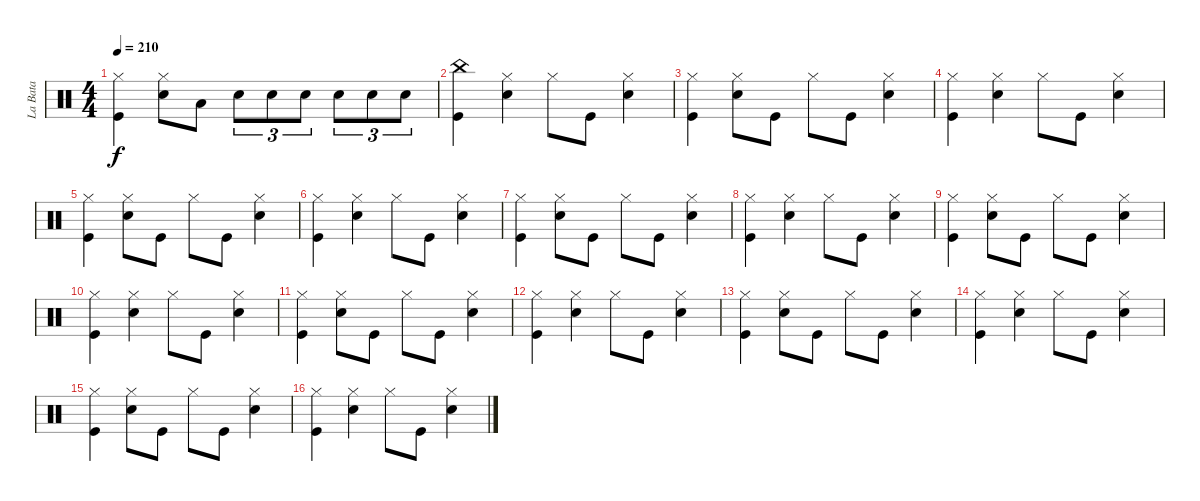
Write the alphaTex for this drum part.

\track ("La Bata" "La Bata") {instrument percussion}
\staff {score}
\articulation defaults
\ts (4 4)
\tempo 210
\clef neutral
\ks c
("Hi-Hat (closed)" "Kick (hit)").4{dy f} ("Snare (hit) 2" "Hi-Hat (closed)").8 "Low Tom (hit)".8 "Snare (hit) 2".8{tu (3 2)} "Snare (hit) 2".8{tu (3 2)} "Snare (hit) 2".8{tu (3 2)} "Snare (hit) 2".8{tu (3 2)} "Snare (hit) 2".8{tu (3 2)} "Snare (hit) 2".8{tu (3 2)} |
("Kick (hit)" "China (hit)").4 ("Snare (hit) 2" "Hi-Hat (closed)").4 "Hi-Hat (closed)".8 "Kick (hit)".8 ("Snare (hit) 2" "Hi-Hat (closed)").4 |
("Hi-Hat (closed)" "Kick (hit)").4 ("Snare (hit) 2" "Hi-Hat (closed)").8 "Kick (hit)".8 "Hi-Hat (closed)".8 "Kick (hit)".8 ("Hi-Hat (closed)" "Snare (hit) 2").4 |
("Kick (hit)" "Hi-Hat (closed)").4 ("Snare (hit) 2" "Hi-Hat (closed)").4 "Hi-Hat (closed)".8 "Kick (hit)".8 ("Snare (hit) 2" "Hi-Hat (closed)").4 |
("Hi-Hat (closed)" "Kick (hit)").4 ("Snare (hit) 2" "Hi-Hat (closed)").8 "Kick (hit)".8 "Hi-Hat (closed)".8 "Kick (hit)".8 ("Hi-Hat (closed)" "Snare (hit) 2").4 |
("Kick (hit)" "Hi-Hat (closed)").4 ("Snare (hit) 2" "Hi-Hat (closed)").4 "Hi-Hat (closed)".8 "Kick (hit)".8 ("Snare (hit) 2" "Hi-Hat (closed)").4 |
("Hi-Hat (closed)" "Kick (hit)").4 ("Snare (hit) 2" "Hi-Hat (closed)").8 "Kick (hit)".8 "Hi-Hat (closed)".8 "Kick (hit)".8 ("Hi-Hat (closed)" "Snare (hit) 2").4 |
("Kick (hit)" "Hi-Hat (closed)").4 ("Snare (hit) 2" "Hi-Hat (closed)").4 "Hi-Hat (closed)".8 "Kick (hit)".8 ("Snare (hit) 2" "Hi-Hat (closed)").4 |
("Hi-Hat (closed)" "Kick (hit)").4 ("Snare (hit) 2" "Hi-Hat (closed)").8 "Kick (hit)".8 "Hi-Hat (closed)".8 "Kick (hit)".8 ("Hi-Hat (closed)" "Snare (hit) 2").4 |
("Kick (hit)" "Hi-Hat (closed)").4 ("Snare (hit) 2" "Hi-Hat (closed)").4 "Hi-Hat (closed)".8 "Kick (hit)".8 ("Snare (hit) 2" "Hi-Hat (closed)").4 |
("Hi-Hat (closed)" "Kick (hit)").4 ("Snare (hit) 2" "Hi-Hat (closed)").8 "Kick (hit)".8 "Hi-Hat (closed)".8 "Kick (hit)".8 ("Hi-Hat (closed)" "Snare (hit) 2").4 |
("Kick (hit)" "Hi-Hat (closed)").4 ("Snare (hit) 2" "Hi-Hat (closed)").4 "Hi-Hat (closed)".8 "Kick (hit)".8 ("Snare (hit) 2" "Hi-Hat (closed)").4 |
("Hi-Hat (closed)" "Kick (hit)").4 ("Snare (hit) 2" "Hi-Hat (closed)").8 "Kick (hit)".8 "Hi-Hat (closed)".8 "Kick (hit)".8 ("Hi-Hat (closed)" "Snare (hit) 2").4 |
("Kick (hit)" "Hi-Hat (closed)").4 ("Snare (hit) 2" "Hi-Hat (closed)").4 "Hi-Hat (closed)".8 "Kick (hit)".8 ("Snare (hit) 2" "Hi-Hat (closed)").4 |
("Hi-Hat (closed)" "Kick (hit)").4 ("Snare (hit) 2" "Hi-Hat (closed)").8 "Kick (hit)".8 "Hi-Hat (closed)".8 "Kick (hit)".8 ("Hi-Hat (closed)" "Snare (hit) 2").4 |
("Kick (hit)" "Hi-Hat (closed)").4 ("Snare (hit) 2" "Hi-Hat (closed)").4 "Hi-Hat (closed)".8 "Kick (hit)".8 ("Snare (hit) 2" "Hi-Hat (closed)").4
